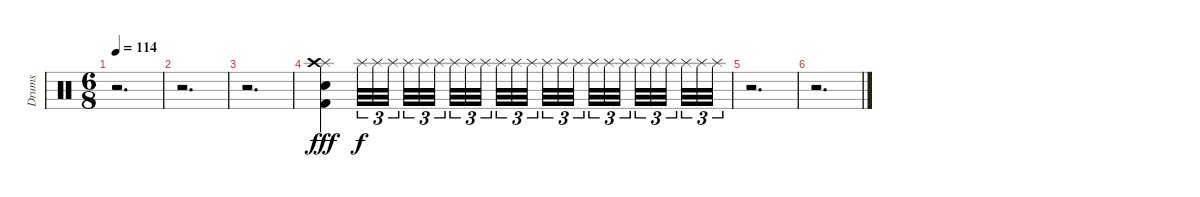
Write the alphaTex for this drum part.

\track ("Drums" "Drums") {instrument percussion}
\staff {score}
\articulation defaults
\ts (6 8)
\tempo 114
\clef neutral
\ks c
r.2{d dy f} |
r.2{d} |
r.2{d} |
("Splash (hit)" "Crash high (hit)" "Snare (hit) 2" "Kick (hit) 2").4{dy fff} "Splash (hit)".32{tu (3 2) dy f} "Splash (hit)".32{tu (3 2)} "Splash (hit)".32{tu (3 2)} "Splash (hit)".32{tu (3 2)} "Splash (hit)".32{tu (3 2)} "Splash (hit)".32{tu (3 2)} "Splash (hit)".32{tu (3 2)} "Splash (hit)".32{tu (3 2)} "Splash (hit)".32{tu (3 2)} "Splash (hit)".32{tu (3 2)} "Splash (hit)".32{tu (3 2)} "Splash (hit)".32{tu (3 2)} "Splash (hit)".32{tu (3 2)} "Splash (hit)".32{tu (3 2)} "Splash (hit)".32{tu (3 2)} "Splash (hit)".32{tu (3 2)} "Splash (hit)".32{tu (3 2)} "Splash (hit)".32{tu (3 2)} "Splash (hit)".32{tu (3 2)} "Splash (hit)".32{tu (3 2)} "Splash (hit)".32{tu (3 2)} "Splash (hit)".32{tu (3 2)} "Splash (hit)".32{tu (3 2)} "Splash (hit)".32{tu (3 2)} |
r.2{d} |
r.2{d}
